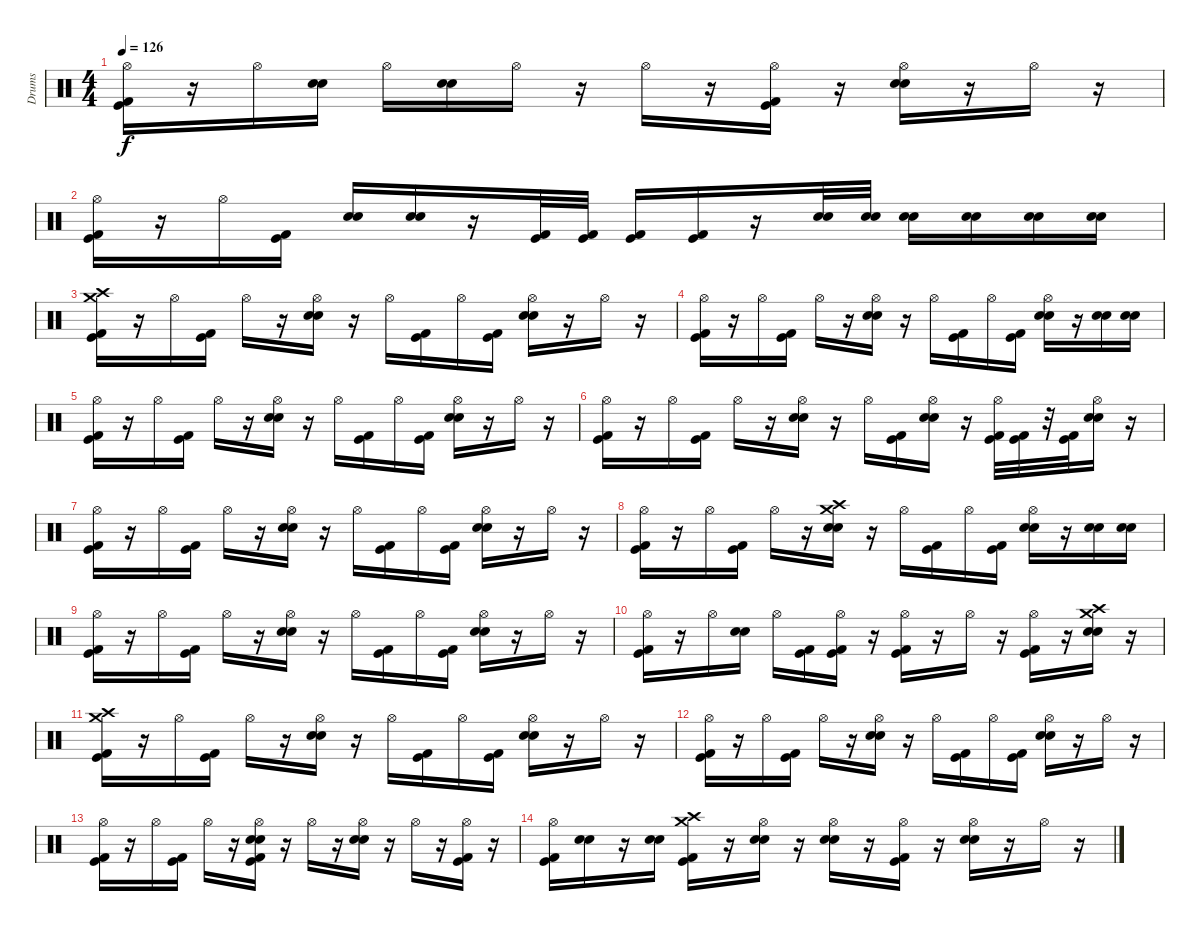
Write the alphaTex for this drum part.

\track ("Drums" "Drums") {instrument percussion}
\staff {score}
\articulation defaults
\ts (4 4)
\tempo 126
\clef neutral
\ks c
("Hi-Hat (open)" "Kick (hit) 2" "Kick (hit)").16{dy f volume 16} r.16 "Hi-Hat (open)".16{volume 16} ("Electric Snare (hit)" "Snare (hit) 2").16{volume 16} "Hi-Hat (open)".16 ("Electric Snare (hit)" "Snare (hit) 2").16{volume 16} "Hi-Hat (open)".16{volume 15} r.16 "Hi-Hat (open)".16{volume 15} r.16 ("Kick (hit) 2" "Kick (hit)" "Hi-Hat (open)").16{volume 15} r.16 ("Electric Snare (hit)" "Snare (hit) 2" "Hi-Hat (open)").16{volume 15} r.16 "Hi-Hat (open)".16{volume 15} r.16 |
("Hi-Hat (open)" "Kick (hit) 2" "Kick (hit)").16{volume 14} r.16 "Hi-Hat (open)".16{volume 14} ("Kick (hit) 2" "Kick (hit)").16{volume 14} ("Electric Snare (hit)" "Snare (hit) 2").16 ("Electric Snare (hit)" "Snare (hit) 2").16{volume 14} r.16 ("Kick (hit) 2" "Kick (hit)").32{volume 14} ("Kick (hit) 2" "Kick (hit)").32{volume 14} ("Kick (hit) 2" "Kick (hit)").16 ("Kick (hit) 2" "Kick (hit)").16{volume 14} r.16 ("Electric Snare (hit)" "Snare (hit) 2").32{volume 14} ("Electric Snare (hit)" "Snare (hit) 2").32 ("Electric Snare (hit)" "Snare (hit) 2").16{volume 14} ("Electric Snare (hit)" "Snare (hit) 2").16 ("Electric Snare (hit)" "Snare (hit) 2").16{volume 13} ("Electric Snare (hit)" "Snare (hit) 2").16{volume 13} |
("Crash high (hit)" "Crash medium (hit)" "Kick (hit) 2" "Kick (hit)").16{volume 13} r.16 "Hi-Hat (open)".16{volume 13} ("Kick (hit) 2" "Kick (hit)").16{volume 13} "Hi-Hat (open)".16 r.16 ("Electric Snare (hit)" "Snare (hit) 2" "Hi-Hat (open)").16{volume 13} r.16 "Hi-Hat (open)".16{volume 12} ("Kick (hit) 2" "Kick (hit)").16{volume 12} "Hi-Hat (open)".16 ("Kick (hit) 2" "Kick (hit)").16{volume 12} ("Electric Snare (hit)" "Snare (hit) 2" "Hi-Hat (open)").16{volume 12} r.16 "Hi-Hat (open)".16{volume 12} r.16 |
("Hi-Hat (open)" "Kick (hit) 2" "Kick (hit)").16{volume 12} r.16 "Hi-Hat (open)".16{volume 12} ("Kick (hit) 2" "Kick (hit)").16 "Hi-Hat (open)".16{volume 12} r.16 ("Electric Snare (hit)" "Snare (hit) 2" "Hi-Hat (open)").16{volume 11} r.16 "Hi-Hat (open)".16{volume 11} ("Kick (hit) 2" "Kick (hit)").16 "Hi-Hat (open)".16{volume 11} ("Kick (hit) 2" "Kick (hit)").16{volume 11} ("Electric Snare (hit)" "Snare (hit) 2" "Hi-Hat (open)").16 r.16 ("Electric Snare (hit)" "Snare (hit) 2").16{volume 11} ("Electric Snare (hit)" "Snare (hit) 2").16{volume 11} |
("Hi-Hat (open)" "Kick (hit) 2" "Kick (hit)").16{volume 10} r.16 "Hi-Hat (open)".16{volume 10} ("Kick (hit) 2" "Kick (hit)").16{volume 10} "Hi-Hat (open)".16 r.16 ("Electric Snare (hit)" "Snare (hit) 2" "Hi-Hat (open)").16{volume 10} r.16 "Hi-Hat (open)".16{volume 10} ("Kick (hit) 2" "Kick (hit)").16 "Hi-Hat (open)".16{volume 10} ("Kick (hit) 2" "Kick (hit)").16{volume 10} ("Electric Snare (hit)" "Snare (hit) 2" "Hi-Hat (open)").16 r.16 "Hi-Hat (open)".16{volume 9} r.16 |
("Hi-Hat (open)" "Kick (hit) 2" "Kick (hit)").16{volume 9} r.16 "Hi-Hat (open)".16{volume 9} ("Kick (hit) 2" "Kick (hit)").16{volume 9} "Hi-Hat (open)".16 r.16 ("Electric Snare (hit)" "Snare (hit) 2" "Hi-Hat (open)").16{volume 9} r.16 "Hi-Hat (open)".16{volume 9} ("Kick (hit) 2" "Kick (hit)").16{volume 8} ("Snare (hit) 2" "Electric Snare (hit)" "Hi-Hat (open)").16 r.16 ("Hi-Hat (open)" "Kick (hit) 2" "Kick (hit)").32{volume 8} ("Kick (hit) 2" "Kick (hit)").32{volume 8} r.32 ("Kick (hit) 2" "Kick (hit)").32 ("Electric Snare (hit)" "Snare (hit) 2" "Hi-Hat (open)").16{volume 8} r.16 |
("Hi-Hat (open)" "Kick (hit) 2" "Kick (hit)").16{volume 8} r.16 "Hi-Hat (open)".16{volume 8} ("Kick (hit) 2" "Kick (hit)").16{volume 7} "Hi-Hat (open)".16 r.16 ("Electric Snare (hit)" "Snare (hit) 2" "Hi-Hat (open)").16{volume 7} r.16 "Hi-Hat (open)".16{volume 7} ("Kick (hit) 2" "Kick (hit)").16{volume 7} "Hi-Hat (open)".16{volume 7} ("Kick (hit)" "Kick (hit) 2").16 ("Electric Snare (hit)" "Snare (hit) 2" "Hi-Hat (open)").16{volume 7} r.16 "Hi-Hat (open)".16{volume 6} r.16 |
("Hi-Hat (open)" "Kick (hit) 2" "Kick (hit)").16{volume 6} r.16 "Hi-Hat (open)".16{volume 6} ("Kick (hit) 2" "Kick (hit)").16 "Hi-Hat (open)".16{volume 6} r.16 ("Crash high (hit)" "Crash medium (hit)" "Electric Snare (hit)" "Snare (hit) 2").16{volume 6} r.16 "Hi-Hat (open)".16{volume 6} ("Kick (hit) 2" "Kick (hit)").16{volume 5} "Hi-Hat (open)".16 ("Kick (hit) 2" "Kick (hit)").16{volume 5} ("Electric Snare (hit)" "Snare (hit) 2" "Hi-Hat (open)").16{volume 5} r.16 ("Electric Snare (hit)" "Snare (hit) 2").16{volume 5} ("Electric Snare (hit)" "Snare (hit) 2").16{volume 5} |
("Hi-Hat (open)" "Kick (hit) 2" "Kick (hit)").16{volume 5} r.16 "Hi-Hat (open)".16{volume 5} ("Kick (hit) 2" "Kick (hit)").16{volume 4} "Hi-Hat (open)".16{volume 4} r.16 ("Electric Snare (hit)" "Snare (hit) 2" "Hi-Hat (open)").16{volume 4} r.16 "Hi-Hat (open)".16{volume 4} ("Kick (hit) 2" "Kick (hit)").16 "Hi-Hat (open)".16{volume 4} ("Kick (hit) 2" "Kick (hit)").16{volume 4} ("Electric Snare (hit)" "Snare (hit) 2" "Hi-Hat (open)").16{volume 4} r.16 "Hi-Hat (open)".16{volume 4} r.16 |
("Hi-Hat (open)" "Kick (hit) 2" "Kick (hit)").16{volume 4} r.16 "Hi-Hat (open)".16{volume 3} ("Electric Snare (hit)" "Snare (hit) 2").16 "Hi-Hat (open)".16 ("Kick (hit) 2" "Kick (hit)").16{volume 3} ("Kick (hit) 2" "Kick (hit)" "Hi-Hat (open)").16 r.16 ("Kick (hit) 2" "Kick (hit)" "Hi-Hat (open)").16{volume 3} r.16 "Hi-Hat (open)".16{volume 3} r.16 ("Kick (hit) 2" "Kick (hit)" "Hi-Hat (open)").16 r.16 ("Crash high (hit)" "Crash medium (hit)" "Electric Snare (hit)" "Snare (hit) 2").16{volume 3} r.16 |
("Crash medium (hit)" "Crash high (hit)" "Kick (hit) 2" "Kick (hit)").16{volume 3} r.16 "Hi-Hat (open)".16 ("Kick (hit) 2" "Kick (hit)").16{volume 3} "Hi-Hat (open)".16 r.16 ("Electric Snare (hit)" "Snare (hit) 2" "Hi-Hat (open)").16{volume 2} r.16 "Hi-Hat (open)".16{volume 2} ("Kick (hit) 2" "Kick (hit)").16 "Hi-Hat (open)".16 ("Kick (hit) 2" "Kick (hit)").16{volume 2} ("Electric Snare (hit)" "Snare (hit) 2" "Hi-Hat (open)").16 r.16 "Hi-Hat (open)".16{volume 2} r.16 |
("Hi-Hat (open)" "Kick (hit) 2" "Kick (hit)").16{volume 2} r.16 "Hi-Hat (open)".16 ("Kick (hit) 2" "Kick (hit)").16{volume 2} "Hi-Hat (open)".16 r.16 ("Electric Snare (hit)" "Snare (hit) 2" "Hi-Hat (open)").16{volume 2} r.16 "Hi-Hat (open)".16{volume 2} ("Kick (hit) 2" "Kick (hit)").16{volume 2} "Hi-Hat (open)".16 ("Kick (hit) 2" "Kick (hit)").16{volume 1} ("Electric Snare (hit)" "Snare (hit) 2" "Hi-Hat (open)").16 r.16 "Hi-Hat (open)".16{volume 1} r.16 |
("Hi-Hat (open)" "Kick (hit) 2" "Kick (hit)").16{volume 1} r.16 "Hi-Hat (open)".16{volume 1} ("Kick (hit) 2" "Kick (hit)").16 "Hi-Hat (open)".16{volume 1} r.16 ("Kick (hit) 2" "Kick (hit)" "Electric Snare (hit)" "Snare (hit) 2" "Hi-Hat (open)").16{volume 1} r.16 "Hi-Hat (open)".16 r.16 ("Electric Snare (hit)" "Snare (hit) 2" "Hi-Hat (open)").16{volume 1} r.16 "Hi-Hat (open)".16{volume 0} r.16 ("Kick (hit) 2" "Kick (hit)" "Hi-Hat (open)").16{volume 0} r.16 |
("Hi-Hat (open)" "Kick (hit) 2" "Kick (hit)").16{volume 0} ("Snare (hit) 2" "Electric Snare (hit)").16 r.16 ("Electric Snare (hit)" "Snare (hit) 2").16{volume 0} ("Kick (hit) 2" "Kick (hit)" "Crash high (hit)" "Crash medium (hit)").16{volume 0} r.16 ("Electric Snare (hit)" "Snare (hit) 2" "Hi-Hat (open)").16 r.16 ("Electric Snare (hit)" "Snare (hit) 2" "Hi-Hat (open)").16 r.16 ("Kick (hit) 2" "Kick (hit)" "Hi-Hat (open)").16 r.16 ("Electric Snare (hit)" "Snare (hit) 2" "Hi-Hat (open)").16 r.16 "Hi-Hat (open)".16 r.16
